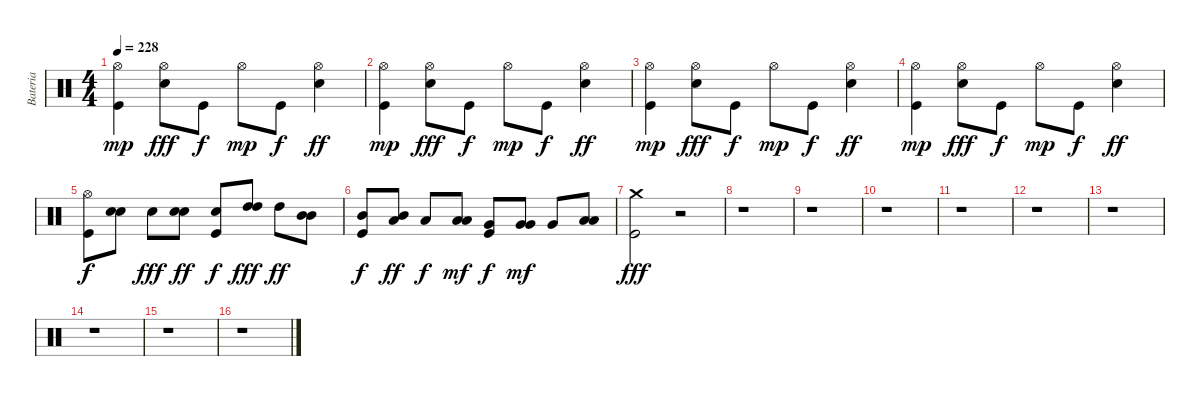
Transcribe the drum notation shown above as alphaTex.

\track ("Bateria" "Bateria") {instrument percussion}
\staff {score}
\articulation defaults
\ts (4 4)
\tempo 228
\clef neutral
\ks c
("Hi-Hat (open)" "Kick (hit)").4{dy mp} ("Hi-Hat (open)" "Electric Snare (hit)").8{dy fff} "Kick (hit)".8{dy f} "Hi-Hat (open)".8{dy mp} "Kick (hit)".8{dy f} ("Hi-Hat (open)" "Electric Snare (hit)").4{dy ff} |
("Hi-Hat (open)" "Kick (hit)").4{dy mp} ("Hi-Hat (open)" "Electric Snare (hit)").8{dy fff} "Kick (hit)".8{dy f} "Hi-Hat (open)".8{dy mp} "Kick (hit)".8{dy f} ("Hi-Hat (open)" "Electric Snare (hit)").4{dy ff} |
("Hi-Hat (open)" "Kick (hit)").4{dy mp} ("Hi-Hat (open)" "Electric Snare (hit)").8{dy fff} "Kick (hit)".8{dy f} "Hi-Hat (open)".8{dy mp} "Kick (hit)".8{dy f} ("Hi-Hat (open)" "Electric Snare (hit)").4{dy ff} |
("Hi-Hat (open)" "Kick (hit)").4{dy mp} ("Hi-Hat (open)" "Electric Snare (hit)").8{dy fff} "Kick (hit)".8{dy f} "Hi-Hat (open)".8{dy mp} "Kick (hit)".8{dy f} ("Hi-Hat (open)" "Electric Snare (hit)").4{dy ff} |
("Hi-Hat (open)" "Kick (hit)").8{dy f} ("Electric Snare (hit)" "Electric Snare (hit)").8 "Electric Snare (hit)".8{dy fff} ("Electric Snare (hit)" "Electric Snare (hit)").8{dy ff} ("Electric Snare (hit)" "Kick (hit)").8{dy f} ("High Tom (hit)" "High Tom (hit)").8{dy fff} "High Tom (hit)".8{dy ff} ("Mid Tom (hit)" "Mid Tom (hit)").8 |
("Kick (hit)" "Mid Tom (hit)").8{dy f} ("Mid Tom (hit)" "Low Tom (hit)").8{dy ff} "Low Tom (hit)".8{dy f} ("Low Tom (hit)" "Low Tom (hit)").8{dy mf} ("Kick (hit)" "Very Low Tom (hit)").8{dy f} ("Very Low Tom (hit)" "Very Low Tom (hit)").8{dy mf} "Very Low Tom (hit)".8 ("Low Floor Tom (hit)" "Low Floor Tom (hit)").8 |
("Crash medium (hit)" "Kick (hit)").2{dy fff} r.2 |
r.1 |
r.1 |
r.1 |
r.1 |
r.1 |
r.1 |
r.1 |
r.1 |
r.1
